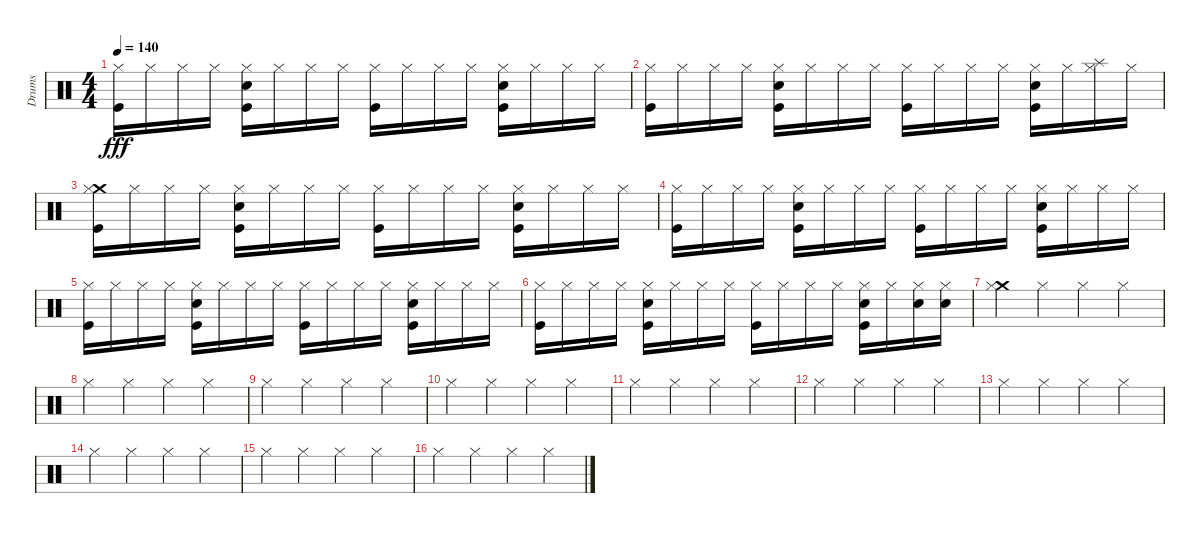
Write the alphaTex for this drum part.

\track ("Drums" "Drums") {instrument percussion}
\staff {score}
\articulation defaults
\ts (4 4)
\tempo 140
\clef neutral
\ks c
("Hi-Hat (closed)" "Kick (hit)").16{dy fff} "Hi-Hat (closed)".16 "Hi-Hat (closed)".16 "Hi-Hat (closed)".16 ("Hi-Hat (closed)" "Electric Snare (hit)" "Kick (hit)").16 "Hi-Hat (closed)".16 "Hi-Hat (closed)".16 "Hi-Hat (closed)".16 ("Hi-Hat (closed)" "Kick (hit)").16 "Hi-Hat (closed)".16 "Hi-Hat (closed)".16 "Hi-Hat (closed)".16 ("Hi-Hat (closed)" "Electric Snare (hit)" "Kick (hit)").16 "Hi-Hat (closed)".16 "Hi-Hat (closed)".16 "Hi-Hat (closed)".16 |
("Hi-Hat (closed)" "Kick (hit)").16 "Hi-Hat (closed)".16 "Hi-Hat (closed)".16 "Hi-Hat (closed)".16 ("Hi-Hat (closed)" "Electric Snare (hit)" "Kick (hit)").16 "Hi-Hat (closed)".16 "Hi-Hat (closed)".16 "Hi-Hat (closed)".16 ("Hi-Hat (closed)" "Kick (hit)").16 "Hi-Hat (closed)".16 "Hi-Hat (closed)".16 "Hi-Hat (closed)".16 ("Hi-Hat (closed)" "Electric Snare (hit)" "Kick (hit)").16 "Hi-Hat (closed)".16 ("Splash (hit)" "Hi-Hat (closed)").16 "Hi-Hat (closed)".16 |
("Crash medium (hit)" "Hi-Hat (closed)" "Kick (hit)").16 "Hi-Hat (closed)".16 "Hi-Hat (closed)".16 "Hi-Hat (closed)".16 ("Hi-Hat (closed)" "Electric Snare (hit)" "Kick (hit)").16 "Hi-Hat (closed)".16 "Hi-Hat (closed)".16 "Hi-Hat (closed)".16 ("Hi-Hat (closed)" "Kick (hit)").16 "Hi-Hat (closed)".16 "Hi-Hat (closed)".16 "Hi-Hat (closed)".16 ("Hi-Hat (closed)" "Electric Snare (hit)" "Kick (hit)").16 "Hi-Hat (closed)".16 "Hi-Hat (closed)".16 "Hi-Hat (closed)".16 |
("Hi-Hat (closed)" "Kick (hit)").16 "Hi-Hat (closed)".16 "Hi-Hat (closed)".16 "Hi-Hat (closed)".16 ("Hi-Hat (closed)" "Electric Snare (hit)" "Kick (hit)").16 "Hi-Hat (closed)".16 "Hi-Hat (closed)".16 "Hi-Hat (closed)".16 ("Hi-Hat (closed)" "Kick (hit)").16 "Hi-Hat (closed)".16 "Hi-Hat (closed)".16 "Hi-Hat (closed)".16 ("Hi-Hat (closed)" "Electric Snare (hit)" "Kick (hit)").16 "Hi-Hat (closed)".16 "Hi-Hat (closed)".16 "Hi-Hat (closed)".16 |
("Hi-Hat (closed)" "Kick (hit)").16 "Hi-Hat (closed)".16 "Hi-Hat (closed)".16 "Hi-Hat (closed)".16 ("Hi-Hat (closed)" "Electric Snare (hit)" "Kick (hit)").16 "Hi-Hat (closed)".16 "Hi-Hat (closed)".16 "Hi-Hat (closed)".16 ("Hi-Hat (closed)" "Kick (hit)").16 "Hi-Hat (closed)".16 "Hi-Hat (closed)".16 "Hi-Hat (closed)".16 ("Hi-Hat (closed)" "Electric Snare (hit)" "Kick (hit)").16 "Hi-Hat (closed)".16 "Hi-Hat (closed)".16 "Hi-Hat (closed)".16 |
("Hi-Hat (closed)" "Kick (hit)").16 "Hi-Hat (closed)".16 "Hi-Hat (closed)".16 "Hi-Hat (closed)".16 ("Hi-Hat (closed)" "Electric Snare (hit)" "Kick (hit)").16 "Hi-Hat (closed)".16 "Hi-Hat (closed)".16 "Hi-Hat (closed)".16 ("Hi-Hat (closed)" "Kick (hit)").16 "Hi-Hat (closed)".16 "Hi-Hat (closed)".16 "Hi-Hat (closed)".16 ("Hi-Hat (closed)" "Electric Snare (hit)" "Kick (hit)").16 "Hi-Hat (closed)".16 ("Hi-Hat (closed)" "Electric Snare (hit)").16 ("Hi-Hat (closed)" "Electric Snare (hit)").16 |
("Crash medium (hit)" "Hi-Hat (closed)").4 "Hi-Hat (closed)".4 "Hi-Hat (closed)".4 "Hi-Hat (closed)".4 |
"Hi-Hat (closed)".4 "Hi-Hat (closed)".4 "Hi-Hat (closed)".4 "Hi-Hat (closed)".4 |
"Hi-Hat (closed)".4 "Hi-Hat (closed)".4 "Hi-Hat (closed)".4 "Hi-Hat (closed)".4 |
"Hi-Hat (closed)".4 "Hi-Hat (closed)".4 "Hi-Hat (closed)".4 "Hi-Hat (closed)".4 |
"Hi-Hat (closed)".4 "Hi-Hat (closed)".4 "Hi-Hat (closed)".4 "Hi-Hat (closed)".4 |
"Hi-Hat (closed)".4 "Hi-Hat (closed)".4 "Hi-Hat (closed)".4 "Hi-Hat (closed)".4 |
"Hi-Hat (closed)".4 "Hi-Hat (closed)".4 "Hi-Hat (closed)".4 "Hi-Hat (closed)".4 |
"Hi-Hat (closed)".4 "Hi-Hat (closed)".4 "Hi-Hat (closed)".4 "Hi-Hat (closed)".4 |
"Hi-Hat (closed)".4 "Hi-Hat (closed)".4 "Hi-Hat (closed)".4 "Hi-Hat (closed)".4 |
"Hi-Hat (closed)".4 "Hi-Hat (closed)".4 "Hi-Hat (closed)".4 "Hi-Hat (closed)".4
